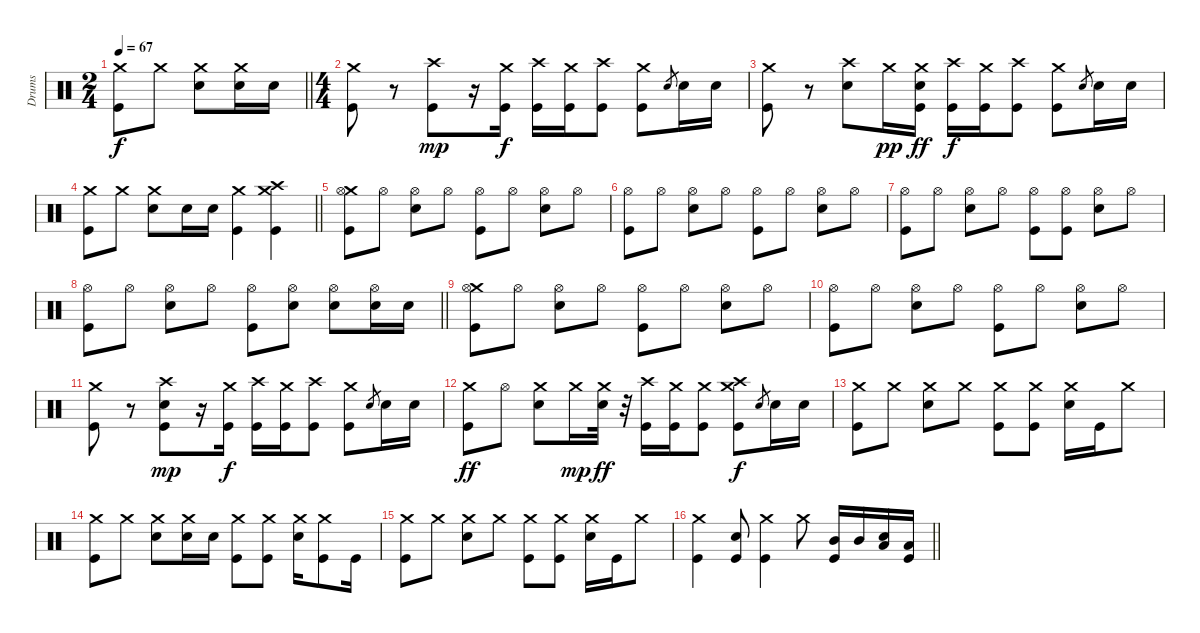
\track ("Drums" "Drums") {instrument percussion}
\staff {score}
\articulation defaults
\ts (2 4)
\tempo 67
\clef neutral
\barLineRight lightlight
\ks c
("Crash medium (hit)" "Kick (hit)").8{dy f} "Crash medium (hit)".8 ("Crash medium (hit)" "Snare (hit) 2").8 ("Crash medium (hit)" "Snare (hit) 2").16 "Snare (hit) 2".16 |
\ts (4 4)
("Crash medium (hit)" "Kick (hit)").8 r.8 ("Crash high (hit)" "Kick (hit)").8{dy mp} r.16 ("Crash medium (hit)" "Kick (hit)").16{dy f} ("Crash high (hit)" "Kick (hit)").16 ("Crash medium (hit)" "Kick (hit)").16 ("Crash high (hit)" "Kick (hit)").8 ("Crash medium (hit)" "Kick (hit)").8 "Snare (hit) 2".8{gr} "Snare (hit) 2".16 "Snare (hit) 2".16 |
("Crash medium (hit)" "Kick (hit)").8 r.8 ("Crash high (hit)" "Snare (hit) 2").8 "Crash medium (hit)".16{dy pp} ("Crash medium (hit)" "Snare (hit) 2" "Kick (hit)").16{dy ff} ("Crash high (hit)" "Kick (hit)").16{dy f} ("Crash medium (hit)" "Kick (hit)").16 ("Crash high (hit)" "Kick (hit)").8 ("Crash medium (hit)" "Kick (hit)").8 "Snare (hit) 2".8{gr} "Snare (hit) 2".16 "Snare (hit) 2".16 |
\barLineRight lightlight
("Crash medium (hit)" "Kick (hit)").8 "Crash medium (hit)".8 ("Crash medium (hit)" "Snare (hit) 2").8 "Snare (hit) 2".16 "Snare (hit) 2".16 ("Crash medium (hit)" "Kick (hit)").4 ("Crash medium (hit)" "Crash high (hit)" "Kick (hit)").4 |
("Crash medium (hit)" "Hi-Hat (open)" "Kick (hit)").8 "Hi-Hat (open)".8 ("Hi-Hat (open)" "Snare (hit) 2").8 "Hi-Hat (open)".8 ("Hi-Hat (open)" "Kick (hit)").8 "Hi-Hat (open)".8 ("Hi-Hat (open)" "Snare (hit) 2").8 "Hi-Hat (open)".8 |
("Hi-Hat (open)" "Kick (hit)").8 "Hi-Hat (open)".8 ("Hi-Hat (open)" "Snare (hit) 2").8 "Hi-Hat (open)".8 ("Hi-Hat (open)" "Kick (hit)").8 "Hi-Hat (open)".8 ("Hi-Hat (open)" "Snare (hit) 2").8 "Hi-Hat (open)".8 |
("Hi-Hat (open)" "Kick (hit)").8 "Hi-Hat (open)".8 ("Hi-Hat (open)" "Snare (hit) 2").8 "Hi-Hat (open)".8 ("Hi-Hat (open)" "Kick (hit)").8 ("Hi-Hat (open)" "Kick (hit)").8 ("Hi-Hat (open)" "Snare (hit) 2").8 "Hi-Hat (open)".8 |
\barLineRight lightlight
("Hi-Hat (open)" "Kick (hit)").8 "Hi-Hat (open)".8 ("Hi-Hat (open)" "Snare (hit) 2").8 "Hi-Hat (open)".8 ("Hi-Hat (open)" "Kick (hit)").8 ("Hi-Hat (open)" "Snare (hit) 2").8 ("Hi-Hat (open)" "Snare (hit) 2").8 ("Hi-Hat (open)" "Snare (hit) 2").16 "Snare (hit) 2".16 |
("Crash medium (hit)" "Hi-Hat (open)" "Kick (hit)").8 "Hi-Hat (open)".8 ("Hi-Hat (open)" "Snare (hit) 2").8 "Hi-Hat (open)".8 ("Hi-Hat (open)" "Kick (hit)").8 "Hi-Hat (open)".8 ("Hi-Hat (open)" "Snare (hit) 2").8 "Hi-Hat (open)".8 |
("Hi-Hat (open)" "Kick (hit)").8 "Hi-Hat (open)".8 ("Hi-Hat (open)" "Snare (hit) 2").8 "Hi-Hat (open)".8 ("Hi-Hat (open)" "Kick (hit)").8 "Hi-Hat (open)".8 ("Hi-Hat (open)" "Snare (hit) 2").8 "Hi-Hat (open)".8 |
("Crash medium (hit)" "Kick (hit)").8 r.8 ("Crash high (hit)" "Snare (hit) 2" "Kick (hit)").8{dy mp} r.16 ("Crash medium (hit)" "Kick (hit)").16{dy f} ("Crash high (hit)" "Kick (hit)").16 ("Crash medium (hit)" "Kick (hit)").16 ("Crash high (hit)" "Kick (hit)").8 ("Crash medium (hit)" "Kick (hit)").8 "Snare (hit) 2".8{gr} "Snare (hit) 2".16 "Snare (hit) 2".16 |
("Crash medium (hit)" "Kick (hit)").8{dy ff} "Hi-Hat (open)".8 ("Crash medium (hit)" "Snare (hit) 2").8 "Crash medium (hit)".16{dy mp} ("Crash medium (hit)" "Snare (hit) 2").32{dy ff} r.32 ("Crash high (hit)" "Kick (hit)").16 ("Crash medium (hit)" "Kick (hit)").16 ("Crash medium (hit)" "Kick (hit)").8 ("Crash high (hit)" "Crash medium (hit)" "Kick (hit)").8{dy f} "Snare (hit) 2".8{gr} "Snare (hit) 2".16 "Snare (hit) 2".16 |
("Crash medium (hit)" "Kick (hit)").8 "Crash medium (hit)".8 ("Crash medium (hit)" "Snare (hit) 2").8 "Crash medium (hit)".8 ("Crash medium (hit)" "Kick (hit)").8 ("Crash medium (hit)" "Kick (hit)").8 ("Crash medium (hit)" "Snare (hit) 2").16 "Kick (hit)".16 "Crash medium (hit)".8 |
("Crash medium (hit)" "Kick (hit)").8 "Crash medium (hit)".8 ("Crash medium (hit)" "Snare (hit) 2").8 ("Crash medium (hit)" "Snare (hit) 2").16 "Snare (hit) 2".16 ("Crash medium (hit)" "Kick (hit)").8 ("Crash medium (hit)" "Kick (hit)").8 ("Crash medium (hit)" "Snare (hit) 2").16 ("Crash medium (hit)" "Kick (hit)").8 "Kick (hit)".16 |
("Crash medium (hit)" "Kick (hit)").8 "Crash medium (hit)".8 ("Crash medium (hit)" "Snare (hit) 2").8 "Crash medium (hit)".8 ("Crash medium (hit)" "Kick (hit)").8 ("Crash medium (hit)" "Kick (hit)").8 ("Crash medium (hit)" "Snare (hit) 2").16 "Kick (hit)".16 "Crash medium (hit)".8 |
\barLineRight lightlight
("Crash medium (hit)" "Kick (hit)").4 ("Snare (hit) 2" "Kick (hit)").8 ("Crash medium (hit)" "Kick (hit)").4 "Crash medium (hit)".8 ("Kick (hit)" "Mid Tom (hit)").16 "Mid Tom (hit)".16 ("Snare (hit) 2" "Low Tom (hit)").16 ("Kick (hit)" "Low Tom (hit)").16
